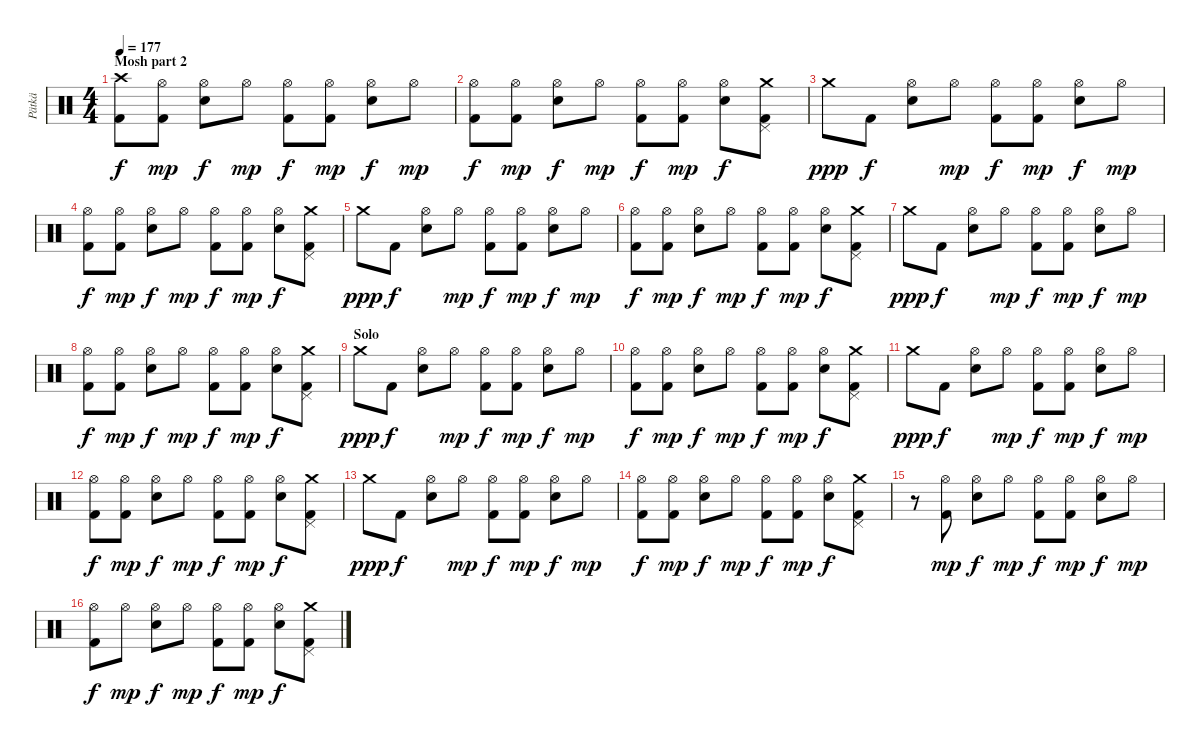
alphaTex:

\track ("Pätkä" "Pätkä") {instrument percussion}
\staff {score}
\articulation defaults
\ts (4 4)
\section ("" "Mosh part 2")
\tempo 177
\clef neutral
\ks c
("Crash high (hit)" "Kick (hit) 2").8{dy f} ("Hi-Hat (open)" "Kick (hit) 2").8{dy mp} ("Hi-Hat (open)" "Electric Snare (hit)").8{dy f} "Hi-Hat (open)".8{dy mp} ("Hi-Hat (open)" "Kick (hit) 2").8{dy f} ("Hi-Hat (open)" "Kick (hit) 2").8{dy mp} ("Hi-Hat (open)" "Electric Snare (hit)").8{dy f} "Hi-Hat (open)".8{dy mp} |
("Hi-Hat (open)" "Kick (hit) 2").8{dy f} ("Hi-Hat (open)" "Kick (hit) 2").8{dy mp} ("Hi-Hat (open)" "Electric Snare (hit)").8{dy f} "Hi-Hat (open)".8{dy mp} ("Hi-Hat (open)" "Kick (hit) 2").8{dy f} ("Hi-Hat (open)" "Kick (hit) 2").8{dy mp} ("Hi-Hat (open)" "Electric Snare (hit)").8{dy f} ("Crash medium (hit)" "Pedal Hi-Hat (hit)" "Kick (hit) 2").8 |
"Crash medium (hit)".8{dy ppp} "Kick (hit) 2".8{dy f} ("Hi-Hat (open)" "Electric Snare (hit)").8 "Hi-Hat (open)".8{dy mp} ("Hi-Hat (open)" "Kick (hit) 2").8{dy f} ("Hi-Hat (open)" "Kick (hit) 2").8{dy mp} ("Hi-Hat (open)" "Electric Snare (hit)").8{dy f} "Hi-Hat (open)".8{dy mp} |
("Hi-Hat (open)" "Kick (hit) 2").8{dy f} ("Hi-Hat (open)" "Kick (hit) 2").8{dy mp} ("Hi-Hat (open)" "Electric Snare (hit)").8{dy f} "Hi-Hat (open)".8{dy mp} ("Hi-Hat (open)" "Kick (hit) 2").8{dy f} ("Hi-Hat (open)" "Kick (hit) 2").8{dy mp} ("Hi-Hat (open)" "Electric Snare (hit)").8{dy f} ("Crash medium (hit)" "Pedal Hi-Hat (hit)" "Kick (hit) 2").8 |
"Crash medium (hit)".8{dy ppp} "Kick (hit) 2".8{dy f} ("Hi-Hat (open)" "Electric Snare (hit)").8 "Hi-Hat (open)".8{dy mp} ("Hi-Hat (open)" "Kick (hit) 2").8{dy f} ("Hi-Hat (open)" "Kick (hit) 2").8{dy mp} ("Hi-Hat (open)" "Electric Snare (hit)").8{dy f} "Hi-Hat (open)".8{dy mp} |
("Hi-Hat (open)" "Kick (hit) 2").8{dy f} ("Hi-Hat (open)" "Kick (hit) 2").8{dy mp} ("Hi-Hat (open)" "Electric Snare (hit)").8{dy f} "Hi-Hat (open)".8{dy mp} ("Hi-Hat (open)" "Kick (hit) 2").8{dy f} ("Hi-Hat (open)" "Kick (hit) 2").8{dy mp} ("Hi-Hat (open)" "Electric Snare (hit)").8{dy f} ("Crash medium (hit)" "Pedal Hi-Hat (hit)" "Kick (hit) 2").8 |
"Crash medium (hit)".8{dy ppp} "Kick (hit) 2".8{dy f} ("Hi-Hat (open)" "Electric Snare (hit)").8 "Hi-Hat (open)".8{dy mp} ("Hi-Hat (open)" "Kick (hit) 2").8{dy f} ("Hi-Hat (open)" "Kick (hit) 2").8{dy mp} ("Hi-Hat (open)" "Electric Snare (hit)").8{dy f} "Hi-Hat (open)".8{dy mp} |
("Hi-Hat (open)" "Kick (hit) 2").8{dy f} ("Hi-Hat (open)" "Kick (hit) 2").8{dy mp} ("Hi-Hat (open)" "Electric Snare (hit)").8{dy f} "Hi-Hat (open)".8{dy mp} ("Hi-Hat (open)" "Kick (hit) 2").8{dy f} ("Hi-Hat (open)" "Kick (hit) 2").8{dy mp} ("Hi-Hat (open)" "Electric Snare (hit)").8{dy f} ("Crash medium (hit)" "Pedal Hi-Hat (hit)" "Kick (hit) 2").8 |
\section ("" "Solo")
"Crash medium (hit)".8{dy ppp} "Kick (hit) 2".8{dy f} ("Hi-Hat (open)" "Electric Snare (hit)").8 "Hi-Hat (open)".8{dy mp} ("Hi-Hat (open)" "Kick (hit) 2").8{dy f} ("Hi-Hat (open)" "Kick (hit) 2").8{dy mp} ("Hi-Hat (open)" "Electric Snare (hit)").8{dy f} "Hi-Hat (open)".8{dy mp} |
("Hi-Hat (open)" "Kick (hit) 2").8{dy f} ("Hi-Hat (open)" "Kick (hit) 2").8{dy mp} ("Hi-Hat (open)" "Electric Snare (hit)").8{dy f} "Hi-Hat (open)".8{dy mp} ("Hi-Hat (open)" "Kick (hit) 2").8{dy f} ("Hi-Hat (open)" "Kick (hit) 2").8{dy mp} ("Hi-Hat (open)" "Electric Snare (hit)").8{dy f} ("Crash medium (hit)" "Pedal Hi-Hat (hit)" "Kick (hit) 2").8 |
"Crash medium (hit)".8{dy ppp} "Kick (hit) 2".8{dy f} ("Hi-Hat (open)" "Electric Snare (hit)").8 "Hi-Hat (open)".8{dy mp} ("Hi-Hat (open)" "Kick (hit) 2").8{dy f} ("Hi-Hat (open)" "Kick (hit) 2").8{dy mp} ("Hi-Hat (open)" "Electric Snare (hit)").8{dy f} "Hi-Hat (open)".8{dy mp} |
("Hi-Hat (open)" "Kick (hit) 2").8{dy f} ("Hi-Hat (open)" "Kick (hit) 2").8{dy mp} ("Hi-Hat (open)" "Electric Snare (hit)").8{dy f} "Hi-Hat (open)".8{dy mp} ("Hi-Hat (open)" "Kick (hit) 2").8{dy f} ("Hi-Hat (open)" "Kick (hit) 2").8{dy mp} ("Hi-Hat (open)" "Electric Snare (hit)").8{dy f} ("Crash medium (hit)" "Pedal Hi-Hat (hit)" "Kick (hit) 2").8 |
"Crash medium (hit)".8{dy ppp} "Kick (hit) 2".8{dy f} ("Hi-Hat (open)" "Electric Snare (hit)").8 "Hi-Hat (open)".8{dy mp} ("Hi-Hat (open)" "Kick (hit) 2").8{dy f} ("Hi-Hat (open)" "Kick (hit) 2").8{dy mp} ("Hi-Hat (open)" "Electric Snare (hit)").8{dy f} "Hi-Hat (open)".8{dy mp} |
("Hi-Hat (open)" "Kick (hit) 2").8{dy f} ("Hi-Hat (open)" "Kick (hit) 2").8{dy mp} ("Hi-Hat (open)" "Electric Snare (hit)").8{dy f} "Hi-Hat (open)".8{dy mp} ("Hi-Hat (open)" "Kick (hit) 2").8{dy f} ("Hi-Hat (open)" "Kick (hit) 2").8{dy mp} ("Hi-Hat (open)" "Electric Snare (hit)").8{dy f} ("Crash medium (hit)" "Pedal Hi-Hat (hit)" "Kick (hit) 2").8 |
r.8 ("Hi-Hat (open)" "Kick (hit) 2").8{dy mp} ("Hi-Hat (open)" "Electric Snare (hit)").8{dy f} "Hi-Hat (open)".8{dy mp} ("Hi-Hat (open)" "Kick (hit) 2").8{dy f} ("Hi-Hat (open)" "Kick (hit) 2").8{dy mp} ("Hi-Hat (open)" "Electric Snare (hit)").8{dy f} "Hi-Hat (open)".8{dy mp} |
("Hi-Hat (open)" "Kick (hit) 2").8{dy f} "Hi-Hat (open)".8{dy mp} ("Hi-Hat (open)" "Electric Snare (hit)").8{dy f} "Hi-Hat (open)".8{dy mp} ("Hi-Hat (open)" "Kick (hit) 2").8{dy f} ("Hi-Hat (open)" "Kick (hit) 2").8{dy mp} ("Hi-Hat (open)" "Electric Snare (hit)").8{dy f} ("Crash medium (hit)" "Pedal Hi-Hat (hit)" "Kick (hit) 2").8
